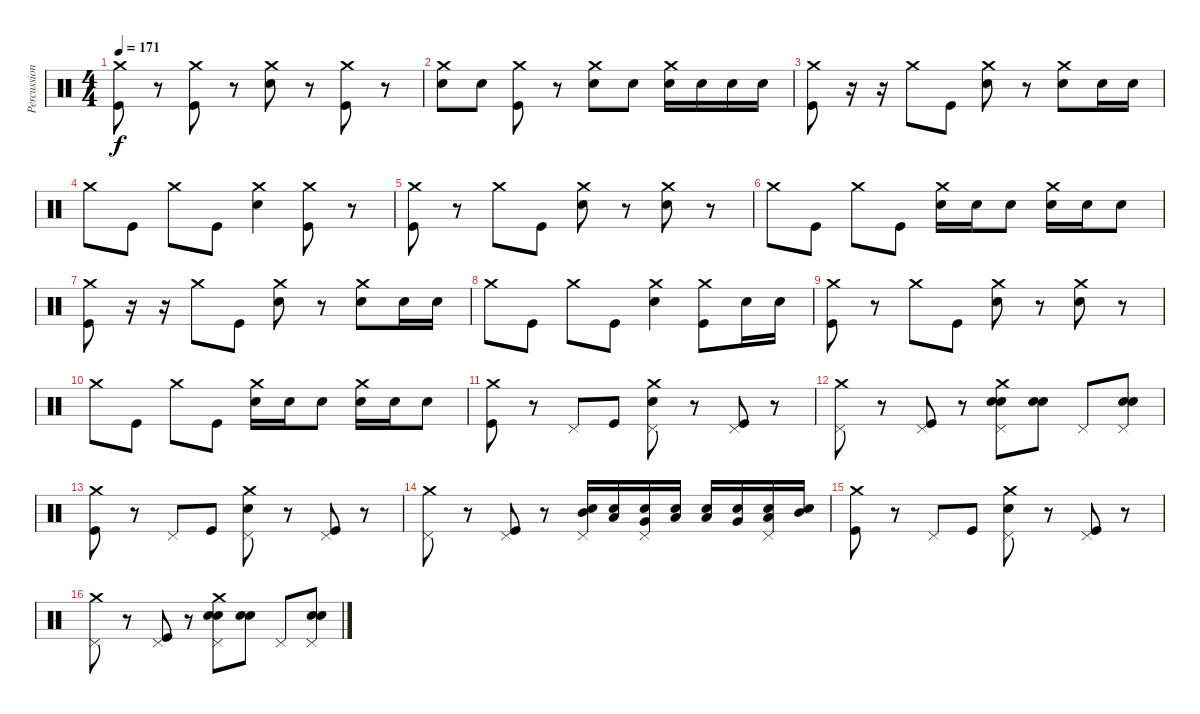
\track ("Percussion" "Percussion") {instrument percussion}
\staff {score}
\articulation defaults
\ts (4 4)
\tempo 171
\clef neutral
\ks c
("Crash medium (hit)" "Kick (hit)").8{dy f} r.8 ("Crash medium (hit)" "Kick (hit)").8 r.8 ("Crash medium (hit)" "Electric Snare (hit)").8 r.8 ("Crash medium (hit)" "Kick (hit)").8 r.8 |
("Crash medium (hit)" "Electric Snare (hit)").8 "Electric Snare (hit)".8 ("Crash medium (hit)" "Kick (hit)").8 r.8 ("Crash medium (hit)" "Electric Snare (hit)").8 "Electric Snare (hit)".8 ("Crash medium (hit)" "Electric Snare (hit)").16 "Electric Snare (hit)".16 "Electric Snare (hit)".16 "Electric Snare (hit)".16 |
("Crash medium (hit)" "Kick (hit)").8 r.16 r.16 "Crash medium (hit)".8 "Kick (hit)".8 ("Crash medium (hit)" "Electric Snare (hit)").8 r.8 ("Crash medium (hit)" "Electric Snare (hit)").8 "Electric Snare (hit)".16 "Electric Snare (hit)".16 |
"Crash medium (hit)".8 "Kick (hit)".8 "Crash medium (hit)".8 "Kick (hit)".8 ("Crash medium (hit)" "Electric Snare (hit)").4 ("Crash medium (hit)" "Kick (hit)").8 r.8 |
("Crash medium (hit)" "Kick (hit)").8 r.8 "Crash medium (hit)".8 "Kick (hit)".8 ("Crash medium (hit)" "Electric Snare (hit)").8 r.8 ("Crash medium (hit)" "Electric Snare (hit)").8 r.8 |
"Crash medium (hit)".8 "Kick (hit)".8 "Crash medium (hit)".8 "Kick (hit)".8 ("Crash medium (hit)" "Electric Snare (hit)").16 "Electric Snare (hit)".16 "Electric Snare (hit)".8 ("Crash medium (hit)" "Electric Snare (hit)").16 "Electric Snare (hit)".16 "Electric Snare (hit)".8 |
("Crash medium (hit)" "Kick (hit)").8 r.16 r.16 "Crash medium (hit)".8 "Kick (hit)".8 ("Crash medium (hit)" "Electric Snare (hit)").8 r.8 ("Crash medium (hit)" "Electric Snare (hit)").8 "Electric Snare (hit)".16 "Electric Snare (hit)".16 |
"Crash medium (hit)".8 "Kick (hit)".8 "Crash medium (hit)".8 "Kick (hit)".8 ("Crash medium (hit)" "Electric Snare (hit)").4 ("Crash medium (hit)" "Kick (hit)").8 "Electric Snare (hit)".16 "Electric Snare (hit)".16 |
("Crash medium (hit)" "Kick (hit)").8 r.8 "Crash medium (hit)".8 "Kick (hit)".8 ("Crash medium (hit)" "Electric Snare (hit)").8 r.8 ("Crash medium (hit)" "Electric Snare (hit)").8 r.8 |
"Crash medium (hit)".8 "Kick (hit)".8 "Crash medium (hit)".8 "Kick (hit)".8 ("Crash medium (hit)" "Electric Snare (hit)").16 "Electric Snare (hit)".16 "Electric Snare (hit)".8 ("Crash medium (hit)" "Electric Snare (hit)").16 "Electric Snare (hit)".16 "Electric Snare (hit)".8 |
("Crash medium (hit)" "Kick (hit)").8 r.8 "Pedal Hi-Hat (hit)".8 "Kick (hit)".8 ("Crash medium (hit)" "Pedal Hi-Hat (hit)" "Electric Snare (hit)").8 r.8 ("Pedal Hi-Hat (hit)" "Kick (hit)").8 r.8 |
("Crash medium (hit)" "Pedal Hi-Hat (hit)").8 r.8 ("Pedal Hi-Hat (hit)" "Kick (hit)").8 r.8 ("Crash medium (hit)" "Pedal Hi-Hat (hit)" "Electric Snare (hit)" "Electric Snare (hit)").8 ("Electric Snare (hit)" "Electric Snare (hit)").8 "Pedal Hi-Hat (hit)".8 ("Pedal Hi-Hat (hit)" "Electric Snare (hit)" "Electric Snare (hit)").8 |
("Crash medium (hit)" "Kick (hit)").8 r.8 "Pedal Hi-Hat (hit)".8 "Kick (hit)".8 ("Crash medium (hit)" "Pedal Hi-Hat (hit)" "Electric Snare (hit)").8 r.8 ("Pedal Hi-Hat (hit)" "Kick (hit)").8 r.8 |
("Pedal Hi-Hat (hit)" "Crash medium (hit)").8 r.8 ("Pedal Hi-Hat (hit)" "Kick (hit)").8 r.8 ("Pedal Hi-Hat (hit)" "Mid Tom (hit)" "Electric Snare (hit)").16 ("Low Tom (hit)" "Electric Snare (hit)").16 ("Pedal Hi-Hat (hit)" "Very Low Tom (hit)" "Electric Snare (hit)").16 ("Low Floor Tom (hit)" "Electric Snare (hit)").16 ("Low Floor Tom (hit)" "Electric Snare (hit)").16 ("Very Low Tom (hit)" "Electric Snare (hit)").16 ("Pedal Hi-Hat (hit)" "Low Tom (hit)" "Electric Snare (hit)").16 ("Mid Tom (hit)" "Electric Snare (hit)").16 |
("Crash medium (hit)" "Kick (hit)").8 r.8 "Pedal Hi-Hat (hit)".8 "Kick (hit)".8 ("Crash medium (hit)" "Pedal Hi-Hat (hit)" "Electric Snare (hit)").8 r.8 ("Pedal Hi-Hat (hit)" "Kick (hit)").8 r.8 |
("Crash medium (hit)" "Pedal Hi-Hat (hit)").8 r.8 ("Pedal Hi-Hat (hit)" "Kick (hit)").8 r.8 ("Crash medium (hit)" "Pedal Hi-Hat (hit)" "Electric Snare (hit)" "Electric Snare (hit)").8 ("Electric Snare (hit)" "Electric Snare (hit)").8 "Pedal Hi-Hat (hit)".8 ("Pedal Hi-Hat (hit)" "Electric Snare (hit)" "Electric Snare (hit)").8
